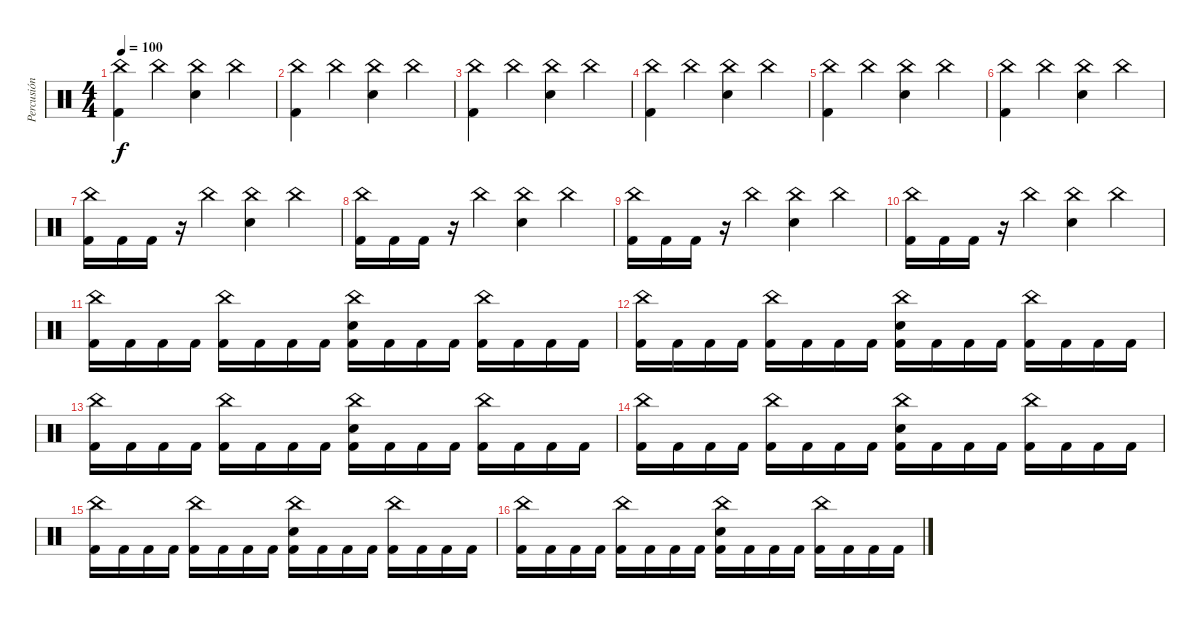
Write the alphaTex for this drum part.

\track ("Percusión" "Percusión") {instrument percussion bank 1}
\staff {score}
\articulation defaults
\ts (4 4)
\tempo 100
\clef neutral
\ks c
("China (hit)" "Kick (hit) 2").4{dy f} "China (hit)".4 ("China (hit)" "Snare (hit) 2").4 "China (hit)".4 |
("China (hit)" "Kick (hit) 2").4 "China (hit)".4 ("China (hit)" "Snare (hit) 2").4 "China (hit)".4 |
("China (hit)" "Kick (hit) 2").4 "China (hit)".4 ("China (hit)" "Snare (hit) 2").4 "China (hit)".4 |
("China (hit)" "Kick (hit) 2").4 "China (hit)".4 ("China (hit)" "Snare (hit) 2").4 "China (hit)".4 |
("China (hit)" "Kick (hit) 2").4 "China (hit)".4 ("China (hit)" "Snare (hit) 2").4 "China (hit)".4 |
("China (hit)" "Kick (hit) 2").4 "China (hit)".4 ("China (hit)" "Snare (hit) 2").4 "China (hit)".4 |
("China (hit)" "Kick (hit) 2").16 "Kick (hit) 2".16 "Kick (hit) 2".16 r.16 "China (hit)".4 ("China (hit)" "Snare (hit) 2").4 "China (hit)".4 |
("China (hit)" "Kick (hit) 2").16 "Kick (hit) 2".16 "Kick (hit) 2".16 r.16 "China (hit)".4 ("China (hit)" "Snare (hit) 2").4 "China (hit)".4 |
("China (hit)" "Kick (hit) 2").16 "Kick (hit) 2".16 "Kick (hit) 2".16 r.16 "China (hit)".4 ("China (hit)" "Snare (hit) 2").4 "China (hit)".4 |
("China (hit)" "Kick (hit) 2").16 "Kick (hit) 2".16 "Kick (hit) 2".16 r.16 "China (hit)".4 ("China (hit)" "Snare (hit) 2").4 "China (hit)".4 |
("Kick (hit) 2" "China (hit)").16 "Kick (hit) 2".16 "Kick (hit) 2".16 "Kick (hit) 2".16 ("Kick (hit) 2" "China (hit)").16 "Kick (hit) 2".16 "Kick (hit) 2".16 "Kick (hit) 2".16 ("Kick (hit) 2" "China (hit)" "Snare (hit) 2").16 "Kick (hit) 2".16 "Kick (hit) 2".16 "Kick (hit) 2".16 ("Kick (hit) 2" "China (hit)").16 "Kick (hit) 2".16 "Kick (hit) 2".16 "Kick (hit) 2".16 |
("Kick (hit) 2" "China (hit)").16 "Kick (hit) 2".16 "Kick (hit) 2".16 "Kick (hit) 2".16 ("Kick (hit) 2" "China (hit)").16 "Kick (hit) 2".16 "Kick (hit) 2".16 "Kick (hit) 2".16 ("Kick (hit) 2" "China (hit)" "Snare (hit) 2").16 "Kick (hit) 2".16 "Kick (hit) 2".16 "Kick (hit) 2".16 ("Kick (hit) 2" "China (hit)").16 "Kick (hit) 2".16 "Kick (hit) 2".16 "Kick (hit) 2".16 |
("Kick (hit) 2" "China (hit)").16 "Kick (hit) 2".16 "Kick (hit) 2".16 "Kick (hit) 2".16 ("Kick (hit) 2" "China (hit)").16 "Kick (hit) 2".16 "Kick (hit) 2".16 "Kick (hit) 2".16 ("Kick (hit) 2" "China (hit)" "Snare (hit) 2").16 "Kick (hit) 2".16 "Kick (hit) 2".16 "Kick (hit) 2".16 ("Kick (hit) 2" "China (hit)").16 "Kick (hit) 2".16 "Kick (hit) 2".16 "Kick (hit) 2".16 |
("Kick (hit) 2" "China (hit)").16 "Kick (hit) 2".16 "Kick (hit) 2".16 "Kick (hit) 2".16 ("Kick (hit) 2" "China (hit)").16 "Kick (hit) 2".16 "Kick (hit) 2".16 "Kick (hit) 2".16 ("Kick (hit) 2" "China (hit)" "Snare (hit) 2").16 "Kick (hit) 2".16 "Kick (hit) 2".16 "Kick (hit) 2".16 ("Kick (hit) 2" "China (hit)").16 "Kick (hit) 2".16 "Kick (hit) 2".16 "Kick (hit) 2".16 |
("Kick (hit) 2" "China (hit)").16 "Kick (hit) 2".16 "Kick (hit) 2".16 "Kick (hit) 2".16 ("Kick (hit) 2" "China (hit)").16 "Kick (hit) 2".16 "Kick (hit) 2".16 "Kick (hit) 2".16 ("Kick (hit) 2" "China (hit)" "Snare (hit) 2").16 "Kick (hit) 2".16 "Kick (hit) 2".16 "Kick (hit) 2".16 ("Kick (hit) 2" "China (hit)").16 "Kick (hit) 2".16 "Kick (hit) 2".16 "Kick (hit) 2".16 |
("Kick (hit) 2" "China (hit)").16 "Kick (hit) 2".16 "Kick (hit) 2".16 "Kick (hit) 2".16 ("Kick (hit) 2" "China (hit)").16 "Kick (hit) 2".16 "Kick (hit) 2".16 "Kick (hit) 2".16 ("Kick (hit) 2" "China (hit)" "Snare (hit) 2").16 "Kick (hit) 2".16 "Kick (hit) 2".16 "Kick (hit) 2".16 ("Kick (hit) 2" "China (hit)").16 "Kick (hit) 2".16 "Kick (hit) 2".16 "Kick (hit) 2".16
